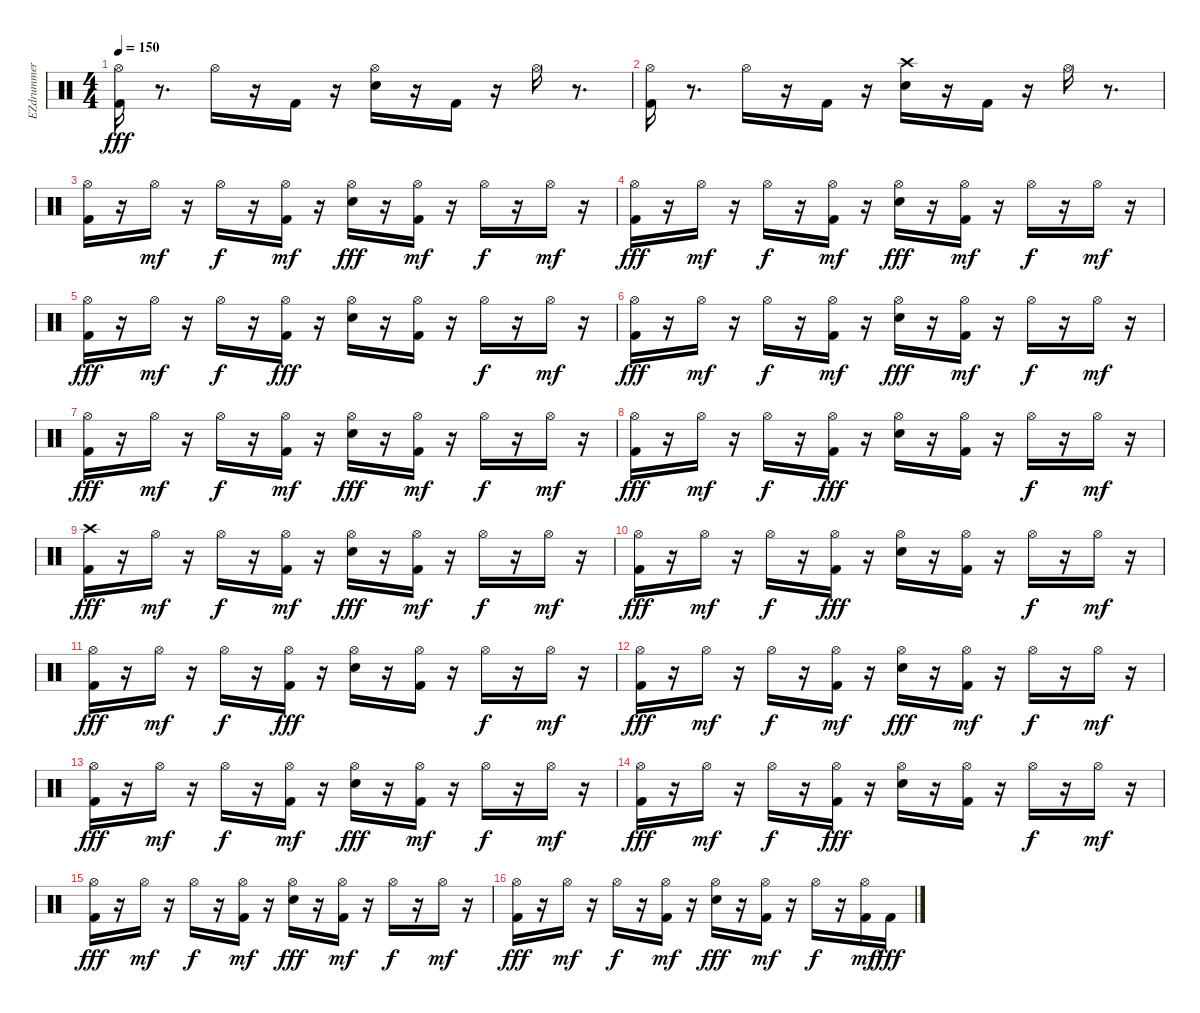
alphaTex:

\track ("EZdrummer 01" "EZdrummer ") {instrument percussion}
\staff {score}
\articulation defaults
\ts (4 4)
\tempo 150
\clef neutral
\ks c
("Hi-Hat (open)" "Kick (hit) 2").16{dy fff} r.8{d} "Hi-Hat (open)".16 r.16 "Kick (hit) 2".16 r.16 ("Hi-Hat (open)" "Electric Snare (hit)").16 r.16 "Kick (hit) 2".16 r.16 "Hi-Hat (open)".16 r.8{d} |
("Hi-Hat (open)" "Kick (hit) 2").16 r.8{d} "Hi-Hat (open)".16 r.16 "Kick (hit) 2".16 r.16 ("Electric Snare (hit)" "Crash high (hit)").16 r.16 "Kick (hit) 2".16 r.16 "Hi-Hat (open)".16 r.8{d} |
("Kick (hit) 2" "Hi-Hat (open)").16 r.16 "Hi-Hat (open)".16{dy mf} r.16 "Hi-Hat (open)".16{dy f} r.16 ("Kick (hit) 2" "Hi-Hat (open)").16{dy mf} r.16 ("Electric Snare (hit)" "Hi-Hat (open)").16{dy fff} r.16 ("Kick (hit) 2" "Hi-Hat (open)").16{dy mf} r.16 "Hi-Hat (open)".16{dy f} r.16 "Hi-Hat (open)".16{dy mf} r.16 |
("Kick (hit) 2" "Hi-Hat (open)").16{dy fff} r.16 "Hi-Hat (open)".16{dy mf} r.16 "Hi-Hat (open)".16{dy f} r.16 ("Kick (hit) 2" "Hi-Hat (open)").16{dy mf} r.16 ("Electric Snare (hit)" "Hi-Hat (open)").16{dy fff} r.16 ("Kick (hit) 2" "Hi-Hat (open)").16{dy mf} r.16 "Hi-Hat (open)".16{dy f} r.16 "Hi-Hat (open)".16{dy mf} r.16 |
("Kick (hit) 2" "Hi-Hat (open)").16{dy fff} r.16 "Hi-Hat (open)".16{dy mf} r.16 "Hi-Hat (open)".16{dy f} r.16 ("Hi-Hat (open)" "Kick (hit) 2").16{dy fff} r.16 ("Electric Snare (hit)" "Hi-Hat (open)").16 r.16 ("Hi-Hat (open)" "Kick (hit) 2").16 r.16 "Hi-Hat (open)".16{dy f} r.16 "Hi-Hat (open)".16{dy mf} r.16 |
("Kick (hit) 2" "Hi-Hat (open)").16{dy fff} r.16 "Hi-Hat (open)".16{dy mf} r.16 "Hi-Hat (open)".16{dy f} r.16 ("Kick (hit) 2" "Hi-Hat (open)").16{dy mf} r.16 ("Electric Snare (hit)" "Hi-Hat (open)").16{dy fff} r.16 ("Kick (hit) 2" "Hi-Hat (open)").16{dy mf} r.16 "Hi-Hat (open)".16{dy f} r.16 "Hi-Hat (open)".16{dy mf} r.16 |
("Hi-Hat (open)" "Kick (hit) 2").16{dy fff} r.16 "Hi-Hat (open)".16{dy mf} r.16 "Hi-Hat (open)".16{dy f} r.16 ("Kick (hit) 2" "Hi-Hat (open)").16{dy mf} r.16 ("Hi-Hat (open)" "Electric Snare (hit)").16{dy fff} r.16 ("Kick (hit) 2" "Hi-Hat (open)").16{dy mf} r.16 "Hi-Hat (open)".16{dy f} r.16 "Hi-Hat (open)".16{dy mf} r.16 |
("Hi-Hat (open)" "Kick (hit) 2").16{dy fff} r.16 "Hi-Hat (open)".16{dy mf} r.16 "Hi-Hat (open)".16{dy f} r.16 ("Hi-Hat (open)" "Kick (hit) 2").16{dy fff} r.16 ("Hi-Hat (open)" "Electric Snare (hit)").16 r.16 ("Hi-Hat (open)" "Kick (hit) 2").16 r.16 "Hi-Hat (open)".16{dy f} r.16 "Hi-Hat (open)".16{dy mf} r.16 |
("Kick (hit) 2" "Crash high (hit)").16{dy fff} r.16 "Hi-Hat (open)".16{dy mf} r.16 "Hi-Hat (open)".16{dy f} r.16 ("Kick (hit) 2" "Hi-Hat (open)").16{dy mf} r.16 ("Electric Snare (hit)" "Hi-Hat (open)").16{dy fff} r.16 ("Kick (hit) 2" "Hi-Hat (open)").16{dy mf} r.16 "Hi-Hat (open)".16{dy f} r.16 "Hi-Hat (open)".16{dy mf} r.16 |
("Hi-Hat (open)" "Kick (hit) 2").16{dy fff} r.16 "Hi-Hat (open)".16{dy mf} r.16 "Hi-Hat (open)".16{dy f} r.16 ("Hi-Hat (open)" "Kick (hit) 2").16{dy fff} r.16 ("Hi-Hat (open)" "Electric Snare (hit)").16 r.16 ("Hi-Hat (open)" "Kick (hit) 2").16 r.16 "Hi-Hat (open)".16{dy f} r.16 "Hi-Hat (open)".16{dy mf} r.16 |
("Kick (hit) 2" "Hi-Hat (open)").16{dy fff} r.16 "Hi-Hat (open)".16{dy mf} r.16 "Hi-Hat (open)".16{dy f} r.16 ("Hi-Hat (open)" "Kick (hit) 2").16{dy fff} r.16 ("Electric Snare (hit)" "Hi-Hat (open)").16 r.16 ("Hi-Hat (open)" "Kick (hit) 2").16 r.16 "Hi-Hat (open)".16{dy f} r.16 "Hi-Hat (open)".16{dy mf} r.16 |
("Kick (hit) 2" "Hi-Hat (open)").16{dy fff} r.16 "Hi-Hat (open)".16{dy mf} r.16 "Hi-Hat (open)".16{dy f} r.16 ("Kick (hit) 2" "Hi-Hat (open)").16{dy mf} r.16 ("Electric Snare (hit)" "Hi-Hat (open)").16{dy fff} r.16 ("Kick (hit) 2" "Hi-Hat (open)").16{dy mf} r.16 "Hi-Hat (open)".16{dy f} r.16 "Hi-Hat (open)".16{dy mf} r.16 |
("Hi-Hat (open)" "Kick (hit) 2").16{dy fff} r.16 "Hi-Hat (open)".16{dy mf} r.16 "Hi-Hat (open)".16{dy f} r.16 ("Kick (hit) 2" "Hi-Hat (open)").16{dy mf} r.16 ("Hi-Hat (open)" "Electric Snare (hit)").16{dy fff} r.16 ("Kick (hit) 2" "Hi-Hat (open)").16{dy mf} r.16 "Hi-Hat (open)".16{dy f} r.16 "Hi-Hat (open)".16{dy mf} r.16 |
("Hi-Hat (open)" "Kick (hit) 2").16{dy fff} r.16 "Hi-Hat (open)".16{dy mf} r.16 "Hi-Hat (open)".16{dy f} r.16 ("Hi-Hat (open)" "Kick (hit) 2").16{dy fff} r.16 ("Hi-Hat (open)" "Electric Snare (hit)").16 r.16 ("Hi-Hat (open)" "Kick (hit) 2").16 r.16 "Hi-Hat (open)".16{dy f} r.16 "Hi-Hat (open)".16{dy mf} r.16 |
("Kick (hit) 2" "Hi-Hat (open)").16{dy fff} r.16 "Hi-Hat (open)".16{dy mf} r.16 "Hi-Hat (open)".16{dy f} r.16 ("Kick (hit) 2" "Hi-Hat (open)").16{dy mf} r.16 ("Electric Snare (hit)" "Hi-Hat (open)").16{dy fff} r.16 ("Kick (hit) 2" "Hi-Hat (open)").16{dy mf} r.16 "Hi-Hat (open)".16{dy f} r.16 "Hi-Hat (open)".16{dy mf} r.16 |
("Kick (hit) 2" "Hi-Hat (open)").16{dy fff} r.16 "Hi-Hat (open)".16{dy mf} r.16 "Hi-Hat (open)".16{dy f} r.16 ("Kick (hit) 2" "Hi-Hat (open)").16{dy mf} r.16 ("Electric Snare (hit)" "Hi-Hat (open)").16{dy fff} r.16 ("Kick (hit) 2" "Hi-Hat (open)").16{dy mf} r.16 "Hi-Hat (open)".16{dy f} r.16 ("Kick (hit) 2" "Hi-Hat (open)").16{dy mf} "Kick (hit) 2".16{dy fff}
